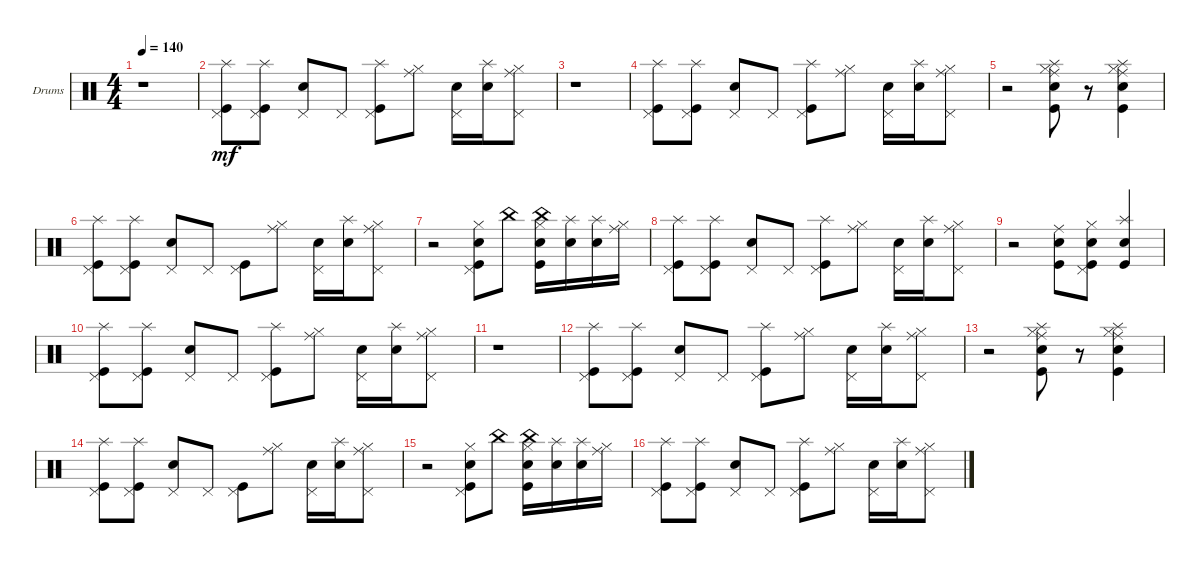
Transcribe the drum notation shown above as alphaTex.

\defaultSystemsLayout 4
\bracketExtendMode groupsimilarinstruments
\firstSystemTrackNameOrientation horizontal
\otherSystemsTrackNameOrientation horizontal
\track ("Drumkit" "Drums") {instrument percussion}
\staff {score}
\articulation defaults
\ts (4 4)
\tempo 140
\clef neutral
\ks c
r.1{dy mf} |
\scale
0.472222 ("Pedal Hi-Hat (hit)" "Kick (hit)" "Splash (hit)").8 ("Pedal Hi-Hat (hit)" "Kick (hit)" "Splash (hit)").8 ("Pedal Hi-Hat (hit)" "Snare (hit) 2").8 "Pedal Hi-Hat (hit)".8 ("Pedal Hi-Hat (hit)" "Kick (hit)" "Splash (hit)").8 ("Ride (middle)" "Hi-Hat (closed)").8 ("Pedal Hi-Hat (hit)" "Snare (hit) 2").16 ("Snare (hit) 2" "Splash (hit)").16 ("Pedal Hi-Hat (hit)" "Hi-Hat (closed)" "Ride (middle)").8 |
\scale
0.263889 r.1 |
\scale
0.263889 ("Pedal Hi-Hat (hit)" "Kick (hit)" "Splash (hit)").8 ("Pedal Hi-Hat (hit)" "Kick (hit)" "Splash (hit)").8 ("Pedal Hi-Hat (hit)" "Snare (hit) 2").8 "Pedal Hi-Hat (hit)".8 ("Pedal Hi-Hat (hit)" "Kick (hit)" "Splash (hit)").8 ("Ride (middle)" "Hi-Hat (closed)").8 ("Pedal Hi-Hat (hit)" "Snare (hit) 2").16 ("Snare (hit) 2" "Splash (hit)").16 ("Pedal Hi-Hat (hit)" "Hi-Hat (closed)" "Ride (middle)").8 |
\scale
0.333333 r.2 ("Hi-Hat (closed)" "Ride (middle)" "Splash (hit)" "Snare (hit) 2" "Kick (hit)").8 r.8 ("Hi-Hat (closed)" "Ride (middle)" "Splash (hit)" "Snare (hit) 2" "Kick (hit)").4 |
\scale
0.333333 ("Pedal Hi-Hat (hit)" "Kick (hit)" "Splash (hit)").8 ("Pedal Hi-Hat (hit)" "Kick (hit)" "Splash (hit)").8 ("Pedal Hi-Hat (hit)" "Snare (hit) 2").8 "Pedal Hi-Hat (hit)".8 ("Pedal Hi-Hat (hit)" "Kick (hit)").8 ("Ride (middle)" "Hi-Hat (closed)").8 ("Pedal Hi-Hat (hit)" "Snare (hit) 2").16 ("Snare (hit) 2" "Splash (hit)").16 ("Pedal Hi-Hat (hit)" "Hi-Hat (closed)" "Ride (middle)").8 |
\scale
0.333333 r.2 ("Snare (hit) 2" "Kick (hit)" "Pedal Hi-Hat (hit)" "Hi-Hat (closed)").8 "China (hit)".8 ("Snare (hit) 2" "Hi-Hat (closed)" "China (hit)" "Kick (hit)").16 ("Snare (hit) 2" "Splash (hit)").16 ("Snare (hit) 2" "Splash (hit)").16 ("Ride (middle)" "Hi-Hat (closed)").16 |
\scale
0.333333 ("Pedal Hi-Hat (hit)" "Kick (hit)" "Splash (hit)").8 ("Pedal Hi-Hat (hit)" "Kick (hit)" "Splash (hit)").8 ("Pedal Hi-Hat (hit)" "Snare (hit) 2").8 "Pedal Hi-Hat (hit)".8 ("Pedal Hi-Hat (hit)" "Kick (hit)" "Splash (hit)").8 ("Ride (middle)" "Hi-Hat (closed)").8 ("Pedal Hi-Hat (hit)" "Snare (hit) 2").16 ("Snare (hit) 2" "Splash (hit)").16 ("Pedal Hi-Hat (hit)" "Hi-Hat (closed)" "Ride (middle)").8 |
\scale
0.333333 r.2 ("Kick (hit)" "Ride (middle)" "Snare (hit) 2").8 ("Kick (hit)" "Hi-Hat (closed)" "Snare (hit) 2" "Pedal Hi-Hat (hit)").8 ("Kick (hit)" "Splash (hit)" "Snare (hit) 2").4 |
("Pedal Hi-Hat (hit)" "Kick (hit)" "Splash (hit)").8 ("Pedal Hi-Hat (hit)" "Kick (hit)" "Splash (hit)").8 ("Pedal Hi-Hat (hit)" "Snare (hit) 2").8 "Pedal Hi-Hat (hit)".8 ("Pedal Hi-Hat (hit)" "Kick (hit)" "Splash (hit)").8 ("Ride (middle)" "Hi-Hat (closed)").8 ("Pedal Hi-Hat (hit)" "Snare (hit) 2").16 ("Snare (hit) 2" "Splash (hit)").16 ("Pedal Hi-Hat (hit)" "Hi-Hat (closed)" "Ride (middle)").8 |
r.1 |
("Pedal Hi-Hat (hit)" "Kick (hit)" "Splash (hit)").8 ("Pedal Hi-Hat (hit)" "Kick (hit)" "Splash (hit)").8 ("Pedal Hi-Hat (hit)" "Snare (hit) 2").8 "Pedal Hi-Hat (hit)".8 ("Pedal Hi-Hat (hit)" "Kick (hit)" "Splash (hit)").8 ("Ride (middle)" "Hi-Hat (closed)").8 ("Pedal Hi-Hat (hit)" "Snare (hit) 2").16 ("Snare (hit) 2" "Splash (hit)").16 ("Pedal Hi-Hat (hit)" "Hi-Hat (closed)" "Ride (middle)").8 |
r.2 ("Hi-Hat (closed)" "Ride (middle)" "Splash (hit)" "Snare (hit) 2" "Kick (hit)").8 r.8 ("Hi-Hat (closed)" "Ride (middle)" "Splash (hit)" "Snare (hit) 2" "Kick (hit)").4 |
("Pedal Hi-Hat (hit)" "Kick (hit)" "Splash (hit)").8 ("Pedal Hi-Hat (hit)" "Kick (hit)" "Splash (hit)").8 ("Pedal Hi-Hat (hit)" "Snare (hit) 2").8 "Pedal Hi-Hat (hit)".8 ("Pedal Hi-Hat (hit)" "Kick (hit)").8 ("Ride (middle)" "Hi-Hat (closed)").8 ("Pedal Hi-Hat (hit)" "Snare (hit) 2").16 ("Snare (hit) 2" "Splash (hit)").16 ("Pedal Hi-Hat (hit)" "Hi-Hat (closed)" "Ride (middle)").8 |
r.2 ("Snare (hit) 2" "Kick (hit)" "Pedal Hi-Hat (hit)" "Hi-Hat (closed)").8 "China (hit)".8 ("Snare (hit) 2" "Hi-Hat (closed)" "China (hit)" "Kick (hit)").16 ("Snare (hit) 2" "Splash (hit)").16 ("Snare (hit) 2" "Splash (hit)").16 ("Ride (middle)" "Hi-Hat (closed)").16 |
("Pedal Hi-Hat (hit)" "Kick (hit)" "Splash (hit)").8 ("Pedal Hi-Hat (hit)" "Kick (hit)" "Splash (hit)").8 ("Pedal Hi-Hat (hit)" "Snare (hit) 2").8 "Pedal Hi-Hat (hit)".8 ("Pedal Hi-Hat (hit)" "Kick (hit)" "Splash (hit)").8 ("Ride (middle)" "Hi-Hat (closed)").8 ("Pedal Hi-Hat (hit)" "Snare (hit) 2").16 ("Snare (hit) 2" "Splash (hit)").16 ("Pedal Hi-Hat (hit)" "Hi-Hat (closed)" "Ride (middle)").8
